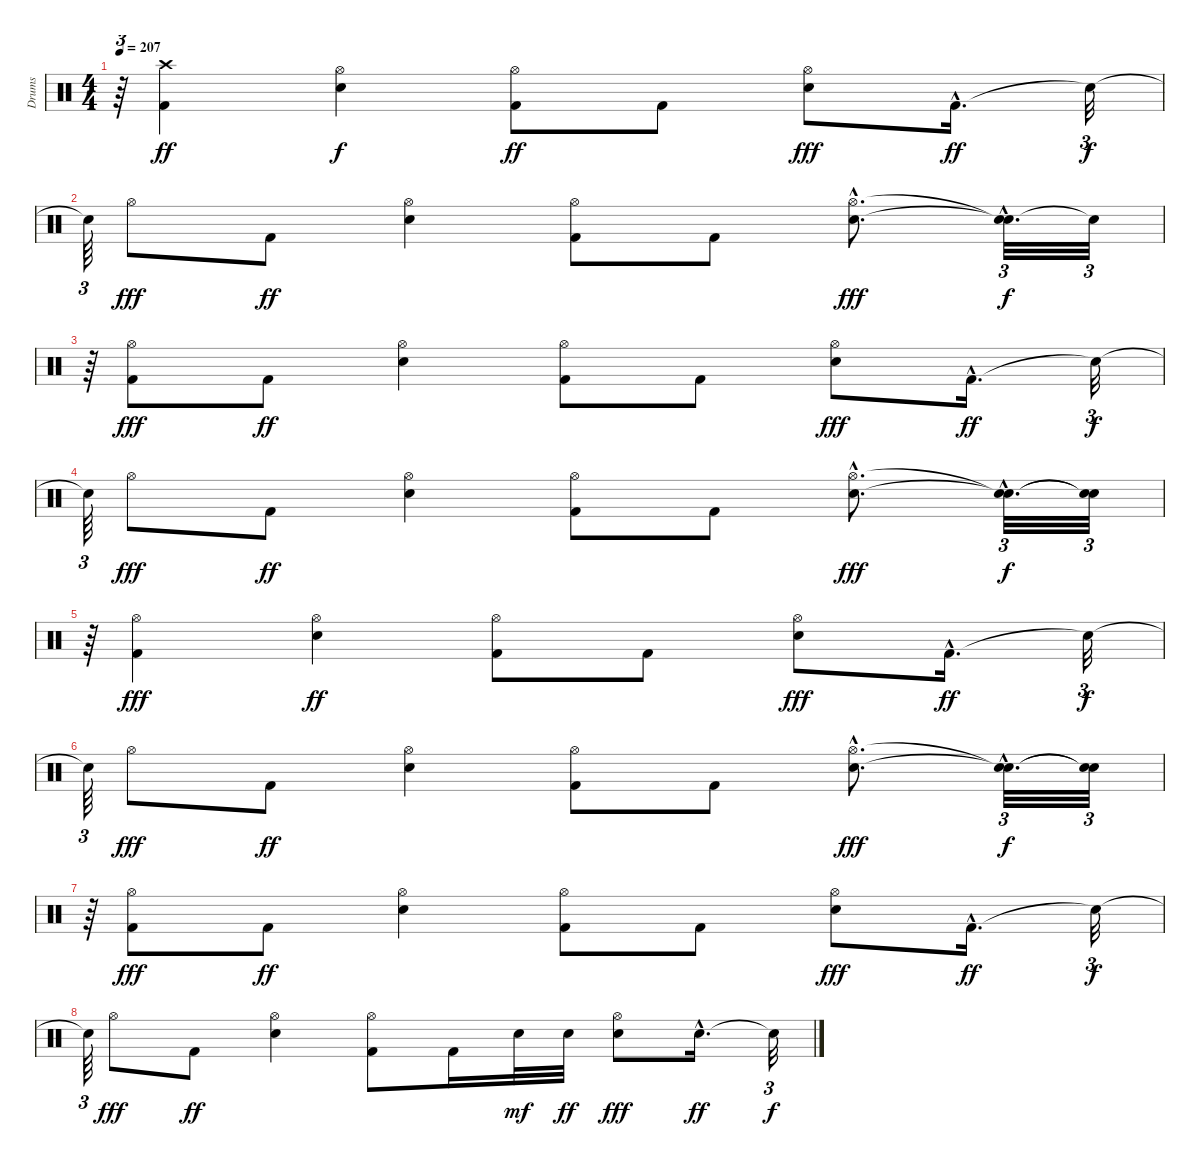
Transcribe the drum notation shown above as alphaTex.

\track ("Drums" "Drums") {instrument percussion}
\staff {score}
\articulation defaults
\ts (4 4)
\tempo 207
\clef neutral
\ks c
r.64{tu (3 2) dy mp} ("Crash high (hit)" "Kick (hit) 2").4{dy ff} ("Hi-Hat (open)" "Snare (hit) 2").4{dy f} ("Kick (hit) 2" "Hi-Hat (open)").8{dy ff} "Kick (hit) 2".8 ("Snare (hit) 2" "Hi-Hat (open)").8{dy fff} "Kick (hit) 2"{hac}.16{d dy ff} "Snare (hit)"{t}.32{tu (3 2) dy f} |
"Snare (hit)"{t}.64{tu (3 2)} "Hi-Hat (open)".8{dy fff} "Kick (hit) 2".8{dy ff} ("Snare (hit) 2" "Hi-Hat (open)").4 ("Kick (hit) 2" "Hi-Hat (open)").8 "Kick (hit) 2".8 ("Snare (hit) 2"{hac} "Hi-Hat (open)"{hac}).8{d dy fff} ("Snare (hit)"{hac t} "Snare (hit)"{hac t}).32{d tu (3 2) dy f} "Snare (hit)"{t}.32{tu (3 2)} |
r.64{tu (3 2)} ("Kick (hit) 2" "Hi-Hat (open)").8{dy fff} "Kick (hit) 2".8{dy ff} ("Snare (hit) 2" "Hi-Hat (open)").4 ("Kick (hit) 2" "Hi-Hat (open)").8 "Kick (hit) 2".8 ("Snare (hit) 2" "Hi-Hat (open)").8{dy fff} "Kick (hit) 2"{hac}.16{d dy ff} "Snare (hit)"{t}.32{tu (3 2) dy f} |
"Snare (hit)"{t}.64{tu (3 2)} "Hi-Hat (open)".8{dy fff} "Kick (hit) 2".8{dy ff} ("Snare (hit) 2" "Hi-Hat (open)").4 ("Kick (hit) 2" "Hi-Hat (open)").8 "Kick (hit) 2".8 ("Snare (hit) 2"{hac} "Hi-Hat (open)"{hac}).8{d dy fff} ("Snare (hit)"{hac t} "Snare (hit)"{hac t}).32{d tu (3 2) dy f} ("Snare (hit)"{t} "Snare (hit)"{t}).32{tu (3 2)} |
r.64{tu (3 2)} ("Kick (hit) 2" "Hi-Hat (open)").4{dy fff} ("Snare (hit) 2" "Hi-Hat (open)").4{dy ff} ("Kick (hit) 2" "Hi-Hat (open)").8 "Kick (hit) 2".8 ("Snare (hit) 2" "Hi-Hat (open)").8{dy fff} "Kick (hit) 2"{hac}.16{d dy ff} "Snare (hit)"{t}.32{tu (3 2) dy f} |
"Snare (hit)"{t}.64{tu (3 2)} "Hi-Hat (open)".8{dy fff} "Kick (hit) 2".8{dy ff} ("Snare (hit) 2" "Hi-Hat (open)").4 ("Kick (hit) 2" "Hi-Hat (open)").8 "Kick (hit) 2".8 ("Snare (hit) 2"{hac} "Hi-Hat (open)"{hac}).8{d dy fff} ("Snare (hit)"{hac t} "Snare (hit)"{hac t}).32{d tu (3 2) dy f} ("Snare (hit)"{t} "Snare (hit)"{t}).32{tu (3 2)} |
r.64{tu (3 2)} ("Kick (hit) 2" "Hi-Hat (open)").8{dy fff} "Kick (hit) 2".8{dy ff} ("Snare (hit) 2" "Hi-Hat (open)").4 ("Kick (hit) 2" "Hi-Hat (open)").8 "Kick (hit) 2".8 ("Snare (hit) 2" "Hi-Hat (open)").8{dy fff} "Kick (hit) 2"{hac}.16{d dy ff} "Snare (hit)"{t}.32{tu (3 2) dy f} |
"Snare (hit)"{t}.64{tu (3 2)} "Hi-Hat (open)".8{dy fff} "Kick (hit) 2".8{dy ff} ("Snare (hit) 2" "Hi-Hat (open)").4 ("Kick (hit) 2" "Hi-Hat (open)").8 "Kick (hit) 2".16 "Snare (hit) 2".32{dy mf} "Snare (hit) 2".32{dy ff} ("Hi-Hat (open)" "Snare (hit) 2").8{dy fff} "Snare (hit) 2"{hac}.16{d dy ff} "Snare (hit)"{t}.32{tu (3 2) dy f}
